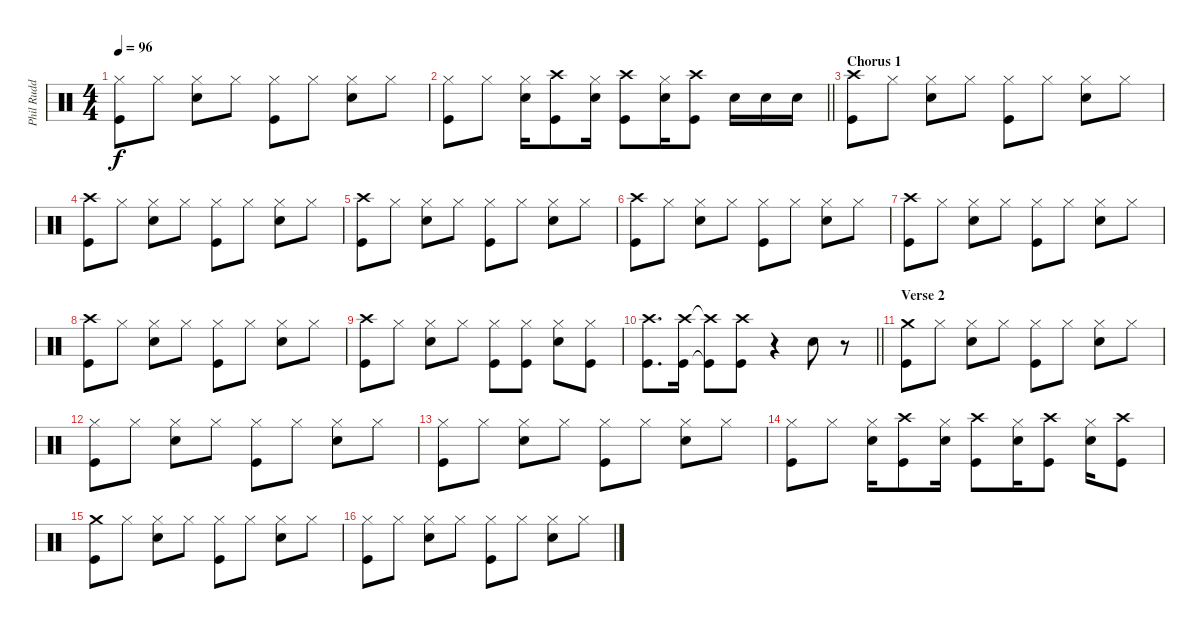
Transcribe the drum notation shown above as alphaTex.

\track ("Phil Rudd" "Phil Rudd") {instrument percussion}
\staff {score}
\articulation defaults
\ts (4 4)
\tempo 96
\clef neutral
\ks c
("Hi-Hat (closed)" "Kick (hit)").8{dy f} "Hi-Hat (closed)".8 ("Hi-Hat (closed)" "Electric Snare (hit)").8 "Hi-Hat (closed)".8 ("Hi-Hat (closed)" "Kick (hit)").8 "Hi-Hat (closed)".8 ("Hi-Hat (closed)" "Electric Snare (hit)").8 "Hi-Hat (closed)".8 |
\barLineRight lightlight
("Hi-Hat (closed)" "Kick (hit)").8 "Hi-Hat (closed)".8 ("Hi-Hat (closed)" "Electric Snare (hit)").16 ("Crash high (hit)" "Kick (hit)").8 ("Hi-Hat (closed)" "Electric Snare (hit)").16 ("Crash high (hit)" "Kick (hit)").8 ("Hi-Hat (closed)" "Electric Snare (hit)").16 ("Crash high (hit)" "Kick (hit)").8 "Electric Snare (hit)".16 "Electric Snare (hit)".16 "Electric Snare (hit)".16 |
\section ("" "Chorus 1")
("Crash high (hit)" "Kick (hit)").8 "Hi-Hat (closed)".8 ("Hi-Hat (closed)" "Electric Snare (hit)").8 "Hi-Hat (closed)".8 ("Hi-Hat (closed)" "Kick (hit)").8 "Hi-Hat (closed)".8 ("Hi-Hat (closed)" "Electric Snare (hit)").8 "Hi-Hat (closed)".8 |
("Crash high (hit)" "Kick (hit)").8 "Hi-Hat (closed)".8 ("Hi-Hat (closed)" "Electric Snare (hit)").8 "Hi-Hat (closed)".8 ("Hi-Hat (closed)" "Kick (hit)").8 "Hi-Hat (closed)".8 ("Hi-Hat (closed)" "Electric Snare (hit)").8 "Hi-Hat (closed)".8 |
("Crash high (hit)" "Kick (hit)").8 "Hi-Hat (closed)".8 ("Hi-Hat (closed)" "Electric Snare (hit)").8 "Hi-Hat (closed)".8 ("Hi-Hat (closed)" "Kick (hit)").8 "Hi-Hat (closed)".8 ("Hi-Hat (closed)" "Electric Snare (hit)").8 "Hi-Hat (closed)".8 |
("Crash high (hit)" "Kick (hit)").8 "Hi-Hat (closed)".8 ("Hi-Hat (closed)" "Electric Snare (hit)").8 "Hi-Hat (closed)".8 ("Hi-Hat (closed)" "Kick (hit)").8 "Hi-Hat (closed)".8 ("Hi-Hat (closed)" "Electric Snare (hit)").8 "Hi-Hat (closed)".8 |
("Crash high (hit)" "Kick (hit)").8 "Hi-Hat (closed)".8 ("Hi-Hat (closed)" "Electric Snare (hit)").8 "Hi-Hat (closed)".8 ("Hi-Hat (closed)" "Kick (hit)").8 "Hi-Hat (closed)".8 ("Hi-Hat (closed)" "Electric Snare (hit)").8 "Hi-Hat (closed)".8 |
("Crash high (hit)" "Kick (hit)").8 "Hi-Hat (closed)".8 ("Hi-Hat (closed)" "Electric Snare (hit)").8 "Hi-Hat (closed)".8 ("Hi-Hat (closed)" "Kick (hit)").8 "Hi-Hat (closed)".8 ("Hi-Hat (closed)" "Electric Snare (hit)").8 "Hi-Hat (closed)".8 |
("Crash high (hit)" "Kick (hit)").8 "Hi-Hat (closed)".8 ("Hi-Hat (closed)" "Electric Snare (hit)").8 "Hi-Hat (closed)".8 ("Hi-Hat (closed)" "Kick (hit)").8 ("Hi-Hat (closed)" "Kick (hit)").8 ("Hi-Hat (closed)" "Electric Snare (hit)").8 ("Hi-Hat (closed)" "Kick (hit)").8 |
\barLineRight lightlight
("Crash high (hit)" "Kick (hit)").8{d} ("Crash high (hit)" "Kick (hit)").16 ("Crash high (hit)"{t} "Kick (hit)"{t}).8 ("Crash high (hit)" "Kick (hit)").8 r.4 "Electric Snare (hit)".8 r.8 |
\section ("" "Verse 2")
("Crash medium (hit)" "Kick (hit)").8 "Hi-Hat (closed)".8 ("Hi-Hat (closed)" "Electric Snare (hit)").8 "Hi-Hat (closed)".8 ("Hi-Hat (closed)" "Kick (hit)").8 "Hi-Hat (closed)".8 ("Hi-Hat (closed)" "Electric Snare (hit)").8 "Hi-Hat (closed)".8 |
("Hi-Hat (closed)" "Kick (hit)").8 "Hi-Hat (closed)".8 ("Hi-Hat (closed)" "Electric Snare (hit)").8 "Hi-Hat (closed)".8 ("Hi-Hat (closed)" "Kick (hit)").8 "Hi-Hat (closed)".8 ("Hi-Hat (closed)" "Electric Snare (hit)").8 "Hi-Hat (closed)".8 |
("Hi-Hat (closed)" "Kick (hit)").8 "Hi-Hat (closed)".8 ("Hi-Hat (closed)" "Electric Snare (hit)").8 "Hi-Hat (closed)".8 ("Hi-Hat (closed)" "Kick (hit)").8 "Hi-Hat (closed)".8 ("Hi-Hat (closed)" "Electric Snare (hit)").8 "Hi-Hat (closed)".8 |
("Hi-Hat (closed)" "Kick (hit)").8 "Hi-Hat (closed)".8 ("Hi-Hat (closed)" "Electric Snare (hit)").16 ("Crash high (hit)" "Kick (hit)").8 ("Hi-Hat (closed)" "Electric Snare (hit)").16 ("Crash high (hit)" "Kick (hit)").8 ("Hi-Hat (closed)" "Electric Snare (hit)").16 ("Crash high (hit)" "Kick (hit)").8 ("Hi-Hat (closed)" "Electric Snare (hit)").16 ("Crash high (hit)" "Kick (hit)").8 |
("Crash medium (hit)" "Kick (hit)").8 "Hi-Hat (closed)".8 ("Hi-Hat (closed)" "Electric Snare (hit)").8 "Hi-Hat (closed)".8 ("Hi-Hat (closed)" "Kick (hit)").8 "Hi-Hat (closed)".8 ("Hi-Hat (closed)" "Electric Snare (hit)").8 "Hi-Hat (closed)".8 |
("Hi-Hat (closed)" "Kick (hit)").8 "Hi-Hat (closed)".8 ("Hi-Hat (closed)" "Electric Snare (hit)").8 "Hi-Hat (closed)".8 ("Hi-Hat (closed)" "Kick (hit)").8 "Hi-Hat (closed)".8 ("Hi-Hat (closed)" "Electric Snare (hit)").8 "Hi-Hat (closed)".8
